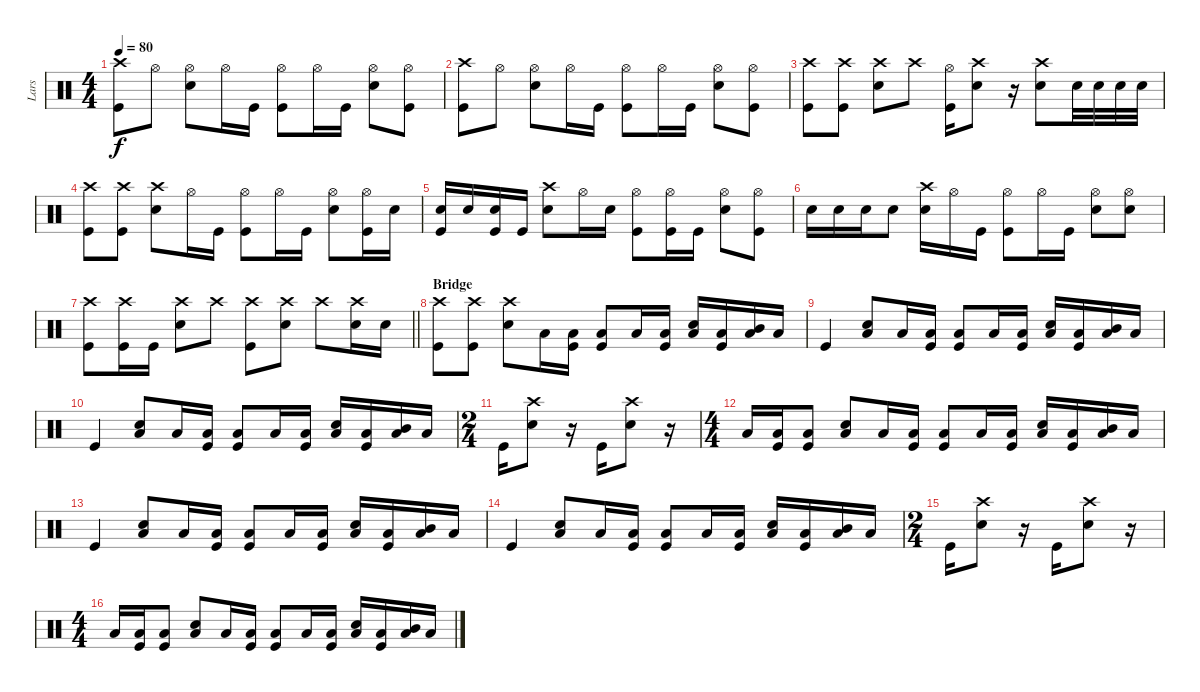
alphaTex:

\track ("Lars" "Lars") {instrument percussion}
\staff {score}
\articulation defaults
\ts (4 4)
\tempo 80
\clef neutral
\ks c
("Crash high (hit)" "Kick (hit)").8{dy f} "Hi-Hat (open)".8 ("Hi-Hat (open)" "Snare (hit) 2").8 "Hi-Hat (open)".16 "Kick (hit)".16 ("Hi-Hat (open)" "Kick (hit)").8 "Hi-Hat (open)".16 "Kick (hit)".16 ("Hi-Hat (open)" "Snare (hit) 2").8 ("Hi-Hat (open)" "Kick (hit)").8 |
("Crash high (hit)" "Kick (hit)").8 "Hi-Hat (open)".8 ("Hi-Hat (open)" "Snare (hit) 2").8 "Hi-Hat (open)".16 "Kick (hit)".16 ("Hi-Hat (open)" "Kick (hit)").8 "Hi-Hat (open)".16 "Kick (hit)".16 ("Hi-Hat (open)" "Snare (hit) 2").8 ("Hi-Hat (open)" "Kick (hit)").8 |
("Crash high (hit)" "Kick (hit)").8 ("Crash high (hit)" "Kick (hit)").8 ("Crash high (hit)" "Snare (hit) 2").8 "Crash high (hit)".8 ("Hi-Hat (open)" "Kick (hit)").16 ("Crash high (hit)" "Snare (hit) 2").8 r.16 ("Crash high (hit)" "Snare (hit) 2").8 "Snare (hit) 2".32 "Snare (hit) 2".32 "Snare (hit) 2".32 "Snare (hit) 2".32 |
("Crash high (hit)" "Kick (hit)").8 ("Crash high (hit)" "Kick (hit)").8 ("Crash high (hit)" "Snare (hit) 2").8 "Hi-Hat (open)".16 "Kick (hit)".16 ("Hi-Hat (open)" "Kick (hit)").8 "Hi-Hat (open)".16 "Kick (hit)".16 ("Hi-Hat (open)" "Snare (hit) 2").8 ("Hi-Hat (open)" "Kick (hit)").16 "Snare (hit) 2".16 |
("Snare (hit) 2" "Kick (hit)").16 "Snare (hit) 2".16 ("Snare (hit) 2" "Kick (hit)").16 "Kick (hit)".16 ("Crash high (hit)" "Snare (hit) 2").8 "Hi-Hat (open)".16 "Snare (hit) 2".16 ("Hi-Hat (open)" "Kick (hit)").8 ("Hi-Hat (open)" "Kick (hit)").16 "Kick (hit)".16 ("Hi-Hat (open)" "Snare (hit) 2").8 ("Hi-Hat (open)" "Kick (hit)").8 |
"Snare (hit) 2".16 "Snare (hit) 2".16 "Snare (hit) 2".16 "Snare (hit) 2".8 ("Crash high (hit)" "Snare (hit) 2").16 "Hi-Hat (open)".16 "Kick (hit)".16 ("Hi-Hat (open)" "Kick (hit)").8 "Hi-Hat (open)".16 "Kick (hit)".16 ("Hi-Hat (open)" "Snare (hit) 2").8 ("Hi-Hat (open)" "Snare (hit) 2").8 |
\barLineRight lightlight
("Crash high (hit)" "Kick (hit)").8 ("Crash high (hit)" "Kick (hit)").16 "Kick (hit)".16 ("Crash high (hit)" "Snare (hit) 2").8 "Crash high (hit)".8 ("Crash high (hit)" "Kick (hit)").8 ("Crash high (hit)" "Snare (hit) 2").8 "Crash high (hit)".8 ("Crash high (hit)" "Snare (hit) 2").16 "Snare (hit) 2".16 |
\section ("" "Bridge")
("Crash high (hit)" "Kick (hit)").8 ("Crash high (hit)" "Kick (hit)").8 ("Crash high (hit)" "Snare (hit) 2").8 "Low Floor Tom (hit)".16 ("Low Floor Tom (hit)" "Kick (hit)").16 ("Low Floor Tom (hit)" "Kick (hit)").8 "Low Floor Tom (hit)".16 ("Low Floor Tom (hit)" "Kick (hit)").16 ("Snare (hit) 2" "Low Floor Tom (hit)").16 ("Low Floor Tom (hit)" "Kick (hit)").16 ("Mid Tom (hit)" "Low Floor Tom (hit)").16 "Low Floor Tom (hit)".16 |
"Kick (hit)".4 ("Snare (hit) 2" "Low Floor Tom (hit)").8 "Low Floor Tom (hit)".16 ("Low Floor Tom (hit)" "Kick (hit)").16 ("Low Floor Tom (hit)" "Kick (hit)").8 "Low Floor Tom (hit)".16 ("Low Floor Tom (hit)" "Kick (hit)").16 ("Snare (hit) 2" "Low Floor Tom (hit)").16 ("Low Floor Tom (hit)" "Kick (hit)").16 ("Mid Tom (hit)" "Low Floor Tom (hit)").16 "Low Floor Tom (hit)".16 |
"Kick (hit)".4 ("Snare (hit) 2" "Low Floor Tom (hit)").8 "Low Floor Tom (hit)".16 ("Low Floor Tom (hit)" "Kick (hit)").16 ("Low Floor Tom (hit)" "Kick (hit)").8 "Low Floor Tom (hit)".16 ("Low Floor Tom (hit)" "Kick (hit)").16 ("Snare (hit) 2" "Low Floor Tom (hit)").16 ("Low Floor Tom (hit)" "Kick (hit)").16 ("Mid Tom (hit)" "Low Floor Tom (hit)").16 "Low Floor Tom (hit)".16 |
\ts (2 4)
"Kick (hit)".16 ("Crash high (hit)" "Snare (hit) 2").8 r.16 "Kick (hit)".16 ("Crash high (hit)" "Snare (hit) 2").8 r.16 |
\ts (4 4)
"Low Floor Tom (hit)".16 ("Low Floor Tom (hit)" "Kick (hit)").16 ("Low Floor Tom (hit)" "Kick (hit)").8 ("Snare (hit) 2" "Low Floor Tom (hit)").8 "Low Floor Tom (hit)".16 ("Low Floor Tom (hit)" "Kick (hit)").16 ("Low Floor Tom (hit)" "Kick (hit)").8 "Low Floor Tom (hit)".16 ("Low Floor Tom (hit)" "Kick (hit)").16 ("Snare (hit) 2" "Low Floor Tom (hit)").16 ("Low Floor Tom (hit)" "Kick (hit)").16 ("Mid Tom (hit)" "Low Floor Tom (hit)").16 "Low Floor Tom (hit)".16 |
"Kick (hit)".4 ("Snare (hit) 2" "Low Floor Tom (hit)").8 "Low Floor Tom (hit)".16 ("Low Floor Tom (hit)" "Kick (hit)").16 ("Low Floor Tom (hit)" "Kick (hit)").8 "Low Floor Tom (hit)".16 ("Low Floor Tom (hit)" "Kick (hit)").16 ("Snare (hit) 2" "Low Floor Tom (hit)").16 ("Low Floor Tom (hit)" "Kick (hit)").16 ("Mid Tom (hit)" "Low Floor Tom (hit)").16 "Low Floor Tom (hit)".16 |
"Kick (hit)".4 ("Snare (hit) 2" "Low Floor Tom (hit)").8 "Low Floor Tom (hit)".16 ("Low Floor Tom (hit)" "Kick (hit)").16 ("Low Floor Tom (hit)" "Kick (hit)").8 "Low Floor Tom (hit)".16 ("Low Floor Tom (hit)" "Kick (hit)").16 ("Snare (hit) 2" "Low Floor Tom (hit)").16 ("Low Floor Tom (hit)" "Kick (hit)").16 ("Mid Tom (hit)" "Low Floor Tom (hit)").16 "Low Floor Tom (hit)".16 |
\ts (2 4)
"Kick (hit)".16 ("Crash high (hit)" "Snare (hit) 2").8 r.16 "Kick (hit)".16 ("Crash high (hit)" "Snare (hit) 2").8 r.16 |
\ts (4 4)
"Low Floor Tom (hit)".16 ("Low Floor Tom (hit)" "Kick (hit)").16 ("Low Floor Tom (hit)" "Kick (hit)").8 ("Snare (hit) 2" "Low Floor Tom (hit)").8 "Low Floor Tom (hit)".16 ("Low Floor Tom (hit)" "Kick (hit)").16 ("Low Floor Tom (hit)" "Kick (hit)").8 "Low Floor Tom (hit)".16 ("Low Floor Tom (hit)" "Kick (hit)").16 ("Snare (hit) 2" "Low Floor Tom (hit)").16 ("Low Floor Tom (hit)" "Kick (hit)").16 ("Mid Tom (hit)" "Low Floor Tom (hit)").16 "Low Floor Tom (hit)".16
